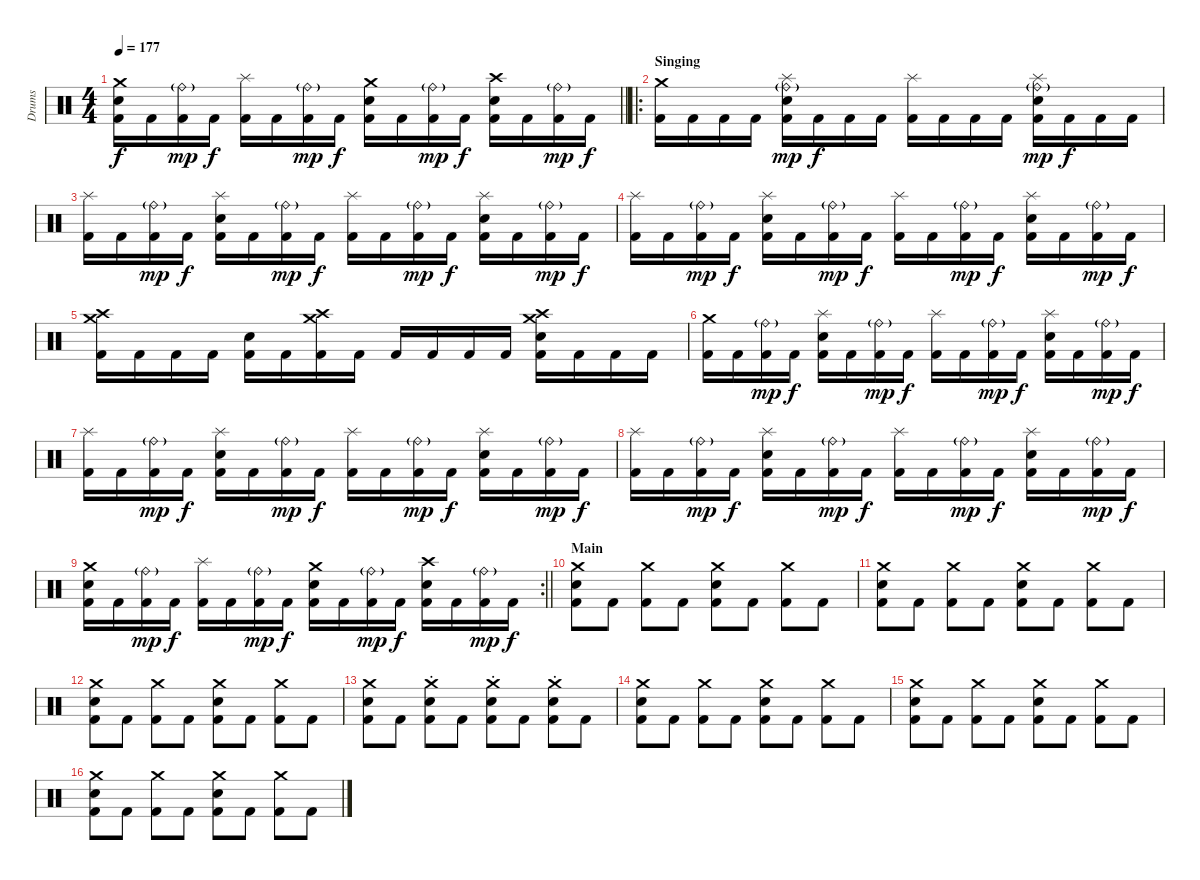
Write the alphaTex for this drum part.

\track ("Drums" "Drums") {instrument percussion}
\staff {score}
\articulation defaults
\ts (4 4)
\tempo 177
\clef neutral
\barLineRight lightlight
\ks c
("Kick (hit) 2" "Snare (hit) 2" "Crash medium (hit)").16{dy f} "Kick (hit) 2".16 ("Kick (hit) 2" "Ride (bell)"{g}).16{dy mp} "Kick (hit) 2".16{dy f} ("Kick (hit) 2" "Splash (hit)").16 "Kick (hit) 2".16 ("Kick (hit) 2" "Ride (bell)"{g}).16{dy mp} "Kick (hit) 2".16{dy f} ("Kick (hit) 2" "Snare (hit) 2" "Crash medium (hit)").16 "Kick (hit) 2".16 ("Kick (hit) 2" "Ride (bell)"{g}).16{dy mp} "Kick (hit) 2".16{dy f} ("Kick (hit) 2" "Snare (hit) 2" "Crash high (hit)").16 "Kick (hit) 2".16 ("Kick (hit) 2" "Ride (bell)"{g}).16{dy mp} "Kick (hit) 2".16{dy f} |
\ro
\section ("" "Singing")
("Kick (hit) 2" "Crash medium (hit)").16 "Kick (hit) 2".16 "Kick (hit) 2".16 "Kick (hit) 2".16 ("Kick (hit) 2" "Snare (hit) 2" "Splash (hit)" "Ride (bell)"{g}).16{dy mp} "Kick (hit) 2".16{dy f} "Kick (hit) 2".16 "Kick (hit) 2".16 ("Kick (hit) 2" "Splash (hit)").16 "Kick (hit) 2".16 "Kick (hit) 2".16 "Kick (hit) 2".16 ("Kick (hit) 2" "Snare (hit) 2" "Splash (hit)" "Ride (bell)"{g}).16{dy mp} "Kick (hit) 2".16{dy f} "Kick (hit) 2".16 "Kick (hit) 2".16 |
("Kick (hit) 2" "Splash (hit)").16 "Kick (hit) 2".16 ("Kick (hit) 2" "Ride (bell)"{g}).16{dy mp} "Kick (hit) 2".16{dy f} ("Kick (hit) 2" "Snare (hit) 2" "Splash (hit)").16 "Kick (hit) 2".16 ("Kick (hit) 2" "Ride (bell)"{g}).16{dy mp} "Kick (hit) 2".16{dy f} ("Kick (hit) 2" "Splash (hit)").16 "Kick (hit) 2".16 ("Kick (hit) 2" "Ride (bell)"{g}).16{dy mp} "Kick (hit) 2".16{dy f} ("Kick (hit) 2" "Snare (hit) 2" "Splash (hit)").16 "Kick (hit) 2".16 ("Kick (hit) 2" "Ride (bell)"{g}).16{dy mp} "Kick (hit) 2".16{dy f} |
("Kick (hit) 2" "Splash (hit)").16 "Kick (hit) 2".16 ("Kick (hit) 2" "Ride (bell)"{g}).16{dy mp} "Kick (hit) 2".16{dy f} ("Kick (hit) 2" "Snare (hit) 2" "Splash (hit)").16 "Kick (hit) 2".16 ("Kick (hit) 2" "Ride (bell)"{g}).16{dy mp} "Kick (hit) 2".16{dy f} ("Kick (hit) 2" "Splash (hit)").16 "Kick (hit) 2".16 ("Kick (hit) 2" "Ride (bell)"{g}).16{dy mp} "Kick (hit) 2".16{dy f} ("Kick (hit) 2" "Snare (hit) 2" "Splash (hit)").16 "Kick (hit) 2".16 ("Kick (hit) 2" "Ride (bell)"{g}).16{dy mp} "Kick (hit) 2".16{dy f} |
("Kick (hit) 2" "Crash high (hit)" "Crash medium (hit)").16 "Kick (hit) 2".16 "Kick (hit) 2".16 "Kick (hit) 2".16 ("Kick (hit) 2" "Snare (hit) 2").16 "Kick (hit) 2".16 ("Kick (hit) 2" "Crash high (hit)" "Crash medium (hit)").16 "Kick (hit) 2".16 "Kick (hit) 2".16 "Kick (hit) 2".16 "Kick (hit) 2".16 "Kick (hit) 2".16 ("Kick (hit) 2" "Snare (hit) 2" "Crash high (hit)" "Crash medium (hit)").16 "Kick (hit) 2".16 "Kick (hit) 2".16 "Kick (hit) 2".16 |
("Kick (hit) 2" "Crash medium (hit)").16 "Kick (hit) 2".16 ("Kick (hit) 2" "Ride (bell)"{g}).16{dy mp} "Kick (hit) 2".16{dy f} ("Kick (hit) 2" "Snare (hit) 2" "Splash (hit)").16 "Kick (hit) 2".16 ("Kick (hit) 2" "Ride (bell)"{g}).16{dy mp} "Kick (hit) 2".16{dy f} ("Kick (hit) 2" "Splash (hit)").16 "Kick (hit) 2".16 ("Kick (hit) 2" "Ride (bell)"{g}).16{dy mp} "Kick (hit) 2".16{dy f} ("Kick (hit) 2" "Snare (hit) 2" "Splash (hit)").16 "Kick (hit) 2".16 ("Kick (hit) 2" "Ride (bell)"{g}).16{dy mp} "Kick (hit) 2".16{dy f} |
("Kick (hit) 2" "Splash (hit)").16 "Kick (hit) 2".16 ("Kick (hit) 2" "Ride (bell)"{g}).16{dy mp} "Kick (hit) 2".16{dy f} ("Kick (hit) 2" "Snare (hit) 2" "Splash (hit)").16 "Kick (hit) 2".16 ("Kick (hit) 2" "Ride (bell)"{g}).16{dy mp} "Kick (hit) 2".16{dy f} ("Kick (hit) 2" "Splash (hit)").16 "Kick (hit) 2".16 ("Kick (hit) 2" "Ride (bell)"{g}).16{dy mp} "Kick (hit) 2".16{dy f} ("Kick (hit) 2" "Snare (hit) 2" "Splash (hit)").16 "Kick (hit) 2".16 ("Kick (hit) 2" "Ride (bell)"{g}).16{dy mp} "Kick (hit) 2".16{dy f} |
("Kick (hit) 2" "Splash (hit)").16 "Kick (hit) 2".16 ("Kick (hit) 2" "Ride (bell)"{g}).16{dy mp} "Kick (hit) 2".16{dy f} ("Kick (hit) 2" "Snare (hit) 2" "Splash (hit)").16 "Kick (hit) 2".16 ("Kick (hit) 2" "Ride (bell)"{g}).16{dy mp} "Kick (hit) 2".16{dy f} ("Kick (hit) 2" "Splash (hit)").16 "Kick (hit) 2".16 ("Kick (hit) 2" "Ride (bell)"{g}).16{dy mp} "Kick (hit) 2".16{dy f} ("Kick (hit) 2" "Snare (hit) 2" "Splash (hit)").16 "Kick (hit) 2".16 ("Kick (hit) 2" "Ride (bell)"{g}).16{dy mp} "Kick (hit) 2".16{dy f} |
\rc 2
\barLineRight lightlight
("Kick (hit) 2" "Snare (hit) 2" "Crash medium (hit)").16 "Kick (hit) 2".16 ("Kick (hit) 2" "Ride (bell)"{g}).16{dy mp} "Kick (hit) 2".16{dy f} ("Kick (hit) 2" "Splash (hit)").16 "Kick (hit) 2".16 ("Kick (hit) 2" "Ride (bell)"{g}).16{dy mp} "Kick (hit) 2".16{dy f} ("Kick (hit) 2" "Snare (hit) 2" "Crash medium (hit)").16 "Kick (hit) 2".16 ("Kick (hit) 2" "Ride (bell)"{g}).16{dy mp} "Kick (hit) 2".16{dy f} ("Kick (hit) 2" "Snare (hit) 2" "Crash high (hit)").16 "Kick (hit) 2".16 ("Kick (hit) 2" "Ride (bell)"{g}).16{dy mp} "Kick (hit) 2".16{dy f} |
\section ("" "Main")
("Kick (hit) 2" "Snare (hit) 2" "Crash medium (hit)").8 "Kick (hit) 2".8 ("Kick (hit) 2" "Crash medium (hit)").8 "Kick (hit) 2".8 ("Kick (hit) 2" "Snare (hit) 2" "Crash medium (hit)").8 "Kick (hit) 2".8 ("Kick (hit) 2" "Crash medium (hit)").8 "Kick (hit) 2".8 |
("Kick (hit) 2" "Snare (hit) 2" "Crash medium (hit)").8 "Kick (hit) 2".8 ("Kick (hit) 2" "Crash medium (hit)").8 "Kick (hit) 2".8 ("Kick (hit) 2" "Snare (hit) 2" "Crash medium (hit)").8 "Kick (hit) 2".8 ("Kick (hit) 2" "Crash medium (hit)").8 "Kick (hit) 2".8 |
("Kick (hit) 2" "Snare (hit) 2" "Crash medium (hit)").8 "Kick (hit) 2".8 ("Kick (hit) 2" "Crash medium (hit)").8 "Kick (hit) 2".8 ("Kick (hit) 2" "Snare (hit) 2" "Crash medium (hit)").8 "Kick (hit) 2".8 ("Kick (hit) 2" "Crash medium (hit)").8 "Kick (hit) 2".8 |
("Kick (hit) 2" "Snare (hit) 2" "Crash medium (hit)").8 "Kick (hit) 2".8 ("Kick (hit) 2" "Snare (hit) 2" "Crash medium (hit)"{st}).8 "Kick (hit) 2".8 ("Kick (hit) 2" "Snare (hit) 2" "Crash medium (hit)"{st}).8 "Kick (hit) 2".8 ("Kick (hit) 2" "Snare (hit) 2" "Crash medium (hit)"{st}).8 "Kick (hit) 2".8 |
("Kick (hit) 2" "Snare (hit) 2" "Crash medium (hit)").8 "Kick (hit) 2".8 ("Kick (hit) 2" "Crash medium (hit)").8 "Kick (hit) 2".8 ("Kick (hit) 2" "Snare (hit) 2" "Crash medium (hit)").8 "Kick (hit) 2".8 ("Kick (hit) 2" "Crash medium (hit)").8 "Kick (hit) 2".8 |
("Kick (hit) 2" "Snare (hit) 2" "Crash medium (hit)").8 "Kick (hit) 2".8 ("Kick (hit) 2" "Crash medium (hit)").8 "Kick (hit) 2".8 ("Kick (hit) 2" "Snare (hit) 2" "Crash medium (hit)").8 "Kick (hit) 2".8 ("Kick (hit) 2" "Crash medium (hit)").8 "Kick (hit) 2".8 |
("Kick (hit) 2" "Snare (hit) 2" "Crash medium (hit)").8 "Kick (hit) 2".8 ("Kick (hit) 2" "Crash medium (hit)").8 "Kick (hit) 2".8 ("Kick (hit) 2" "Snare (hit) 2" "Crash medium (hit)").8 "Kick (hit) 2".8 ("Kick (hit) 2" "Crash medium (hit)").8 "Kick (hit) 2".8
